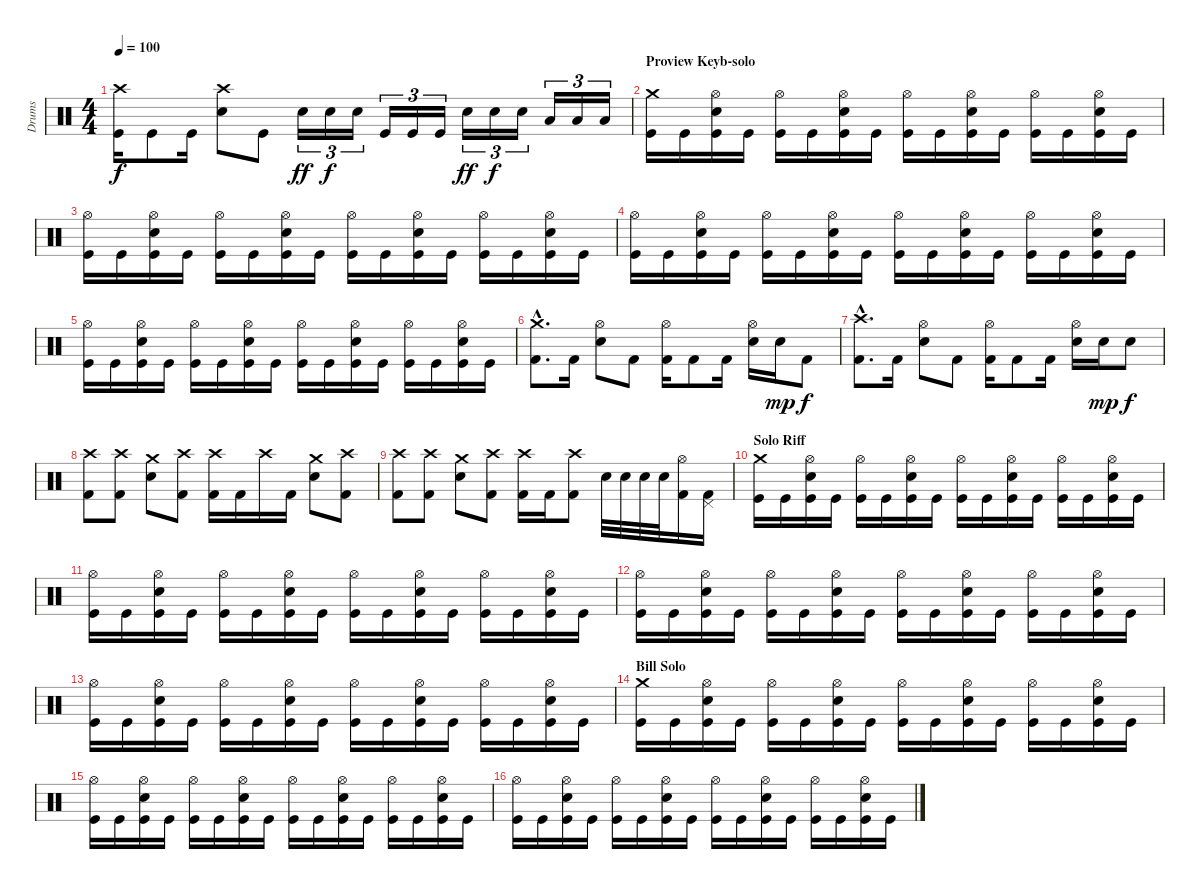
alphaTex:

\track ("Drums" "Drums") {instrument percussion}
\staff {score}
\articulation defaults
\ts (4 4)
\tempo 100
\clef neutral
\ks c
("Crash high (hit)" "Kick (hit)").16{dy f} "Kick (hit)".8 "Kick (hit)".16 ("Crash high (hit)" "Electric Snare (hit)").8 "Kick (hit)".8 "Electric Snare (hit)".16{tu (3 2) dy ff} "Electric Snare (hit)".16{tu (3 2) dy f} "Electric Snare (hit)".16{tu (3 2)} "Kick (hit)".16{tu (3 2)} "Kick (hit)".16{tu (3 2)} "Kick (hit)".16{tu (3 2)} "Electric Snare (hit)".16{tu (3 2) dy ff} "Electric Snare (hit)".16{tu (3 2) dy f} "Electric Snare (hit)".16{tu (3 2)} "Low Tom (hit)".16{tu (3 2)} "Low Tom (hit)".16{tu (3 2)} "Low Tom (hit)".16{tu (3 2)} |
\section ("" "Proview Keyb-solo")
("Crash medium (hit)" "Kick (hit)").16 "Kick (hit)".16 ("Hi-Hat (open)" "Electric Snare (hit)" "Kick (hit)").16 "Kick (hit)".16 ("Hi-Hat (open)" "Kick (hit)").16 "Kick (hit)".16 ("Hi-Hat (open)" "Electric Snare (hit)" "Kick (hit)").16 "Kick (hit)".16 ("Hi-Hat (open)" "Kick (hit)").16 "Kick (hit)".16 ("Hi-Hat (open)" "Electric Snare (hit)" "Kick (hit)").16 "Kick (hit)".16 ("Hi-Hat (open)" "Kick (hit)").16 "Kick (hit)".16 ("Hi-Hat (open)" "Electric Snare (hit)" "Kick (hit)").16 "Kick (hit)".16 |
("Hi-Hat (open)" "Kick (hit)").16 "Kick (hit)".16 ("Hi-Hat (open)" "Electric Snare (hit)" "Kick (hit)").16 "Kick (hit)".16 ("Hi-Hat (open)" "Kick (hit)").16 "Kick (hit)".16 ("Hi-Hat (open)" "Electric Snare (hit)" "Kick (hit)").16 "Kick (hit)".16 ("Hi-Hat (open)" "Kick (hit)").16 "Kick (hit)".16 ("Hi-Hat (open)" "Electric Snare (hit)" "Kick (hit)").16 "Kick (hit)".16 ("Hi-Hat (open)" "Kick (hit)").16 "Kick (hit)".16 ("Hi-Hat (open)" "Electric Snare (hit)" "Kick (hit)").16 "Kick (hit)".16 |
("Hi-Hat (open)" "Kick (hit)").16 "Kick (hit)".16 ("Hi-Hat (open)" "Electric Snare (hit)" "Kick (hit)").16 "Kick (hit)".16 ("Hi-Hat (open)" "Kick (hit)").16 "Kick (hit)".16 ("Hi-Hat (open)" "Electric Snare (hit)" "Kick (hit)").16 "Kick (hit)".16 ("Hi-Hat (open)" "Kick (hit)").16 "Kick (hit)".16 ("Hi-Hat (open)" "Electric Snare (hit)" "Kick (hit)").16 "Kick (hit)".16 ("Hi-Hat (open)" "Kick (hit)").16 "Kick (hit)".16 ("Hi-Hat (open)" "Electric Snare (hit)" "Kick (hit)").16 "Kick (hit)".16 |
("Hi-Hat (open)" "Kick (hit)").16 "Kick (hit)".16 ("Hi-Hat (open)" "Electric Snare (hit)" "Kick (hit)").16 "Kick (hit)".16 ("Hi-Hat (open)" "Kick (hit)").16 "Kick (hit)".16 ("Hi-Hat (open)" "Electric Snare (hit)" "Kick (hit)").16 "Kick (hit)".16 ("Hi-Hat (open)" "Kick (hit)").16 "Kick (hit)".16 ("Hi-Hat (open)" "Electric Snare (hit)" "Kick (hit)").16 "Kick (hit)".16 ("Hi-Hat (open)" "Kick (hit)").16 "Kick (hit)".16 ("Hi-Hat (open)" "Electric Snare (hit)" "Kick (hit)").16 "Kick (hit)".16 |
("Crash medium (hit)"{hac} "Kick (hit) 2"{hac}).8{d} "Kick (hit) 2".16 ("Hi-Hat (open)" "Electric Snare (hit)").8 "Kick (hit) 2".8 ("Hi-Hat (open)" "Kick (hit) 2").16 "Kick (hit) 2".8 "Kick (hit) 2".16 ("Hi-Hat (open)" "Electric Snare (hit)").16 "Electric Snare (hit)".16{dy mp} "Kick (hit) 2".8{dy f} |
("Crash high (hit)"{hac} "Kick (hit) 2"{hac}).8{d} "Kick (hit) 2".16 ("Hi-Hat (open)" "Electric Snare (hit)").8 "Kick (hit) 2".8 ("Hi-Hat (open)" "Kick (hit) 2").16 "Kick (hit) 2".8 "Kick (hit) 2".16 ("Hi-Hat (open)" "Electric Snare (hit)").16 "Electric Snare (hit)".16{dy mp} "Electric Snare (hit)".8{dy f} |
("Crash high (hit)" "Kick (hit) 2").8 ("Crash high (hit)" "Kick (hit) 2").8 ("Crash medium (hit)" "Electric Snare (hit)").8 ("Crash high (hit)" "Kick (hit) 2").8 ("Crash high (hit)" "Kick (hit) 2").16 "Kick (hit) 2".16 "Crash high (hit)".16 "Kick (hit) 2".16 ("Crash medium (hit)" "Electric Snare (hit)").8 ("Crash high (hit)" "Kick (hit) 2").8 |
("Crash high (hit)" "Kick (hit) 2").8 ("Crash high (hit)" "Kick (hit) 2").8 ("Crash medium (hit)" "Electric Snare (hit)").8 ("Crash high (hit)" "Kick (hit) 2").8 ("Crash high (hit)" "Kick (hit) 2").16 "Kick (hit) 2".16 ("Crash high (hit)" "Kick (hit) 2").8 "Electric Snare (hit)".32 "Electric Snare (hit)".32 "Electric Snare (hit)".32 "Electric Snare (hit)".32 ("Hi-Hat (open)" "Kick (hit) 2").16 ("Pedal Hi-Hat (hit)" "Kick (hit) 2").16 |
\section ("" "Solo Riff")
("Crash medium (hit)" "Kick (hit)").16 "Kick (hit)".16 ("Hi-Hat (open)" "Electric Snare (hit)" "Kick (hit)").16 "Kick (hit)".16 ("Hi-Hat (open)" "Kick (hit)").16 "Kick (hit)".16 ("Hi-Hat (open)" "Electric Snare (hit)" "Kick (hit)").16 "Kick (hit)".16 ("Hi-Hat (open)" "Kick (hit)").16 "Kick (hit)".16 ("Hi-Hat (open)" "Electric Snare (hit)" "Kick (hit)").16 "Kick (hit)".16 ("Hi-Hat (open)" "Kick (hit)").16 "Kick (hit)".16 ("Hi-Hat (open)" "Electric Snare (hit)" "Kick (hit)").16 "Kick (hit)".16 |
("Hi-Hat (open)" "Kick (hit)").16 "Kick (hit)".16 ("Hi-Hat (open)" "Electric Snare (hit)" "Kick (hit)").16 "Kick (hit)".16 ("Hi-Hat (open)" "Kick (hit)").16 "Kick (hit)".16 ("Hi-Hat (open)" "Electric Snare (hit)" "Kick (hit)").16 "Kick (hit)".16 ("Hi-Hat (open)" "Kick (hit)").16 "Kick (hit)".16 ("Hi-Hat (open)" "Electric Snare (hit)" "Kick (hit)").16 "Kick (hit)".16 ("Hi-Hat (open)" "Kick (hit)").16 "Kick (hit)".16 ("Hi-Hat (open)" "Electric Snare (hit)" "Kick (hit)").16 "Kick (hit)".16 |
("Hi-Hat (open)" "Kick (hit)").16 "Kick (hit)".16 ("Hi-Hat (open)" "Electric Snare (hit)" "Kick (hit)").16 "Kick (hit)".16 ("Hi-Hat (open)" "Kick (hit)").16 "Kick (hit)".16 ("Hi-Hat (open)" "Electric Snare (hit)" "Kick (hit)").16 "Kick (hit)".16 ("Hi-Hat (open)" "Kick (hit)").16 "Kick (hit)".16 ("Hi-Hat (open)" "Electric Snare (hit)" "Kick (hit)").16 "Kick (hit)".16 ("Hi-Hat (open)" "Kick (hit)").16 "Kick (hit)".16 ("Hi-Hat (open)" "Electric Snare (hit)" "Kick (hit)").16 "Kick (hit)".16 |
("Hi-Hat (open)" "Kick (hit)").16 "Kick (hit)".16 ("Hi-Hat (open)" "Electric Snare (hit)" "Kick (hit)").16 "Kick (hit)".16 ("Hi-Hat (open)" "Kick (hit)").16 "Kick (hit)".16 ("Hi-Hat (open)" "Electric Snare (hit)" "Kick (hit)").16 "Kick (hit)".16 ("Hi-Hat (open)" "Kick (hit)").16 "Kick (hit)".16 ("Hi-Hat (open)" "Electric Snare (hit)" "Kick (hit)").16 "Kick (hit)".16 ("Hi-Hat (open)" "Kick (hit)").16 "Kick (hit)".16 ("Hi-Hat (open)" "Electric Snare (hit)" "Kick (hit)").16 "Kick (hit)".16 |
\section ("" "Bill Solo")
("Crash medium (hit)" "Kick (hit)").16 "Kick (hit)".16 ("Hi-Hat (open)" "Electric Snare (hit)" "Kick (hit)").16 "Kick (hit)".16 ("Hi-Hat (open)" "Kick (hit)").16 "Kick (hit)".16 ("Hi-Hat (open)" "Electric Snare (hit)" "Kick (hit)").16 "Kick (hit)".16 ("Hi-Hat (open)" "Kick (hit)").16 "Kick (hit)".16 ("Hi-Hat (open)" "Electric Snare (hit)" "Kick (hit)").16 "Kick (hit)".16 ("Hi-Hat (open)" "Kick (hit)").16 "Kick (hit)".16 ("Hi-Hat (open)" "Electric Snare (hit)" "Kick (hit)").16 "Kick (hit)".16 |
("Hi-Hat (open)" "Kick (hit)").16 "Kick (hit)".16 ("Hi-Hat (open)" "Electric Snare (hit)" "Kick (hit)").16 "Kick (hit)".16 ("Hi-Hat (open)" "Kick (hit)").16 "Kick (hit)".16 ("Hi-Hat (open)" "Electric Snare (hit)" "Kick (hit)").16 "Kick (hit)".16 ("Hi-Hat (open)" "Kick (hit)").16 "Kick (hit)".16 ("Hi-Hat (open)" "Electric Snare (hit)" "Kick (hit)").16 "Kick (hit)".16 ("Hi-Hat (open)" "Kick (hit)").16 "Kick (hit)".16 ("Hi-Hat (open)" "Electric Snare (hit)" "Kick (hit)").16 "Kick (hit)".16 |
("Hi-Hat (open)" "Kick (hit)").16 "Kick (hit)".16 ("Hi-Hat (open)" "Electric Snare (hit)" "Kick (hit)").16 "Kick (hit)".16 ("Hi-Hat (open)" "Kick (hit)").16 "Kick (hit)".16 ("Hi-Hat (open)" "Electric Snare (hit)" "Kick (hit)").16 "Kick (hit)".16 ("Hi-Hat (open)" "Kick (hit)").16 "Kick (hit)".16 ("Hi-Hat (open)" "Electric Snare (hit)" "Kick (hit)").16 "Kick (hit)".16 ("Hi-Hat (open)" "Kick (hit)").16 "Kick (hit)".16 ("Hi-Hat (open)" "Electric Snare (hit)" "Kick (hit)").16 "Kick (hit)".16
